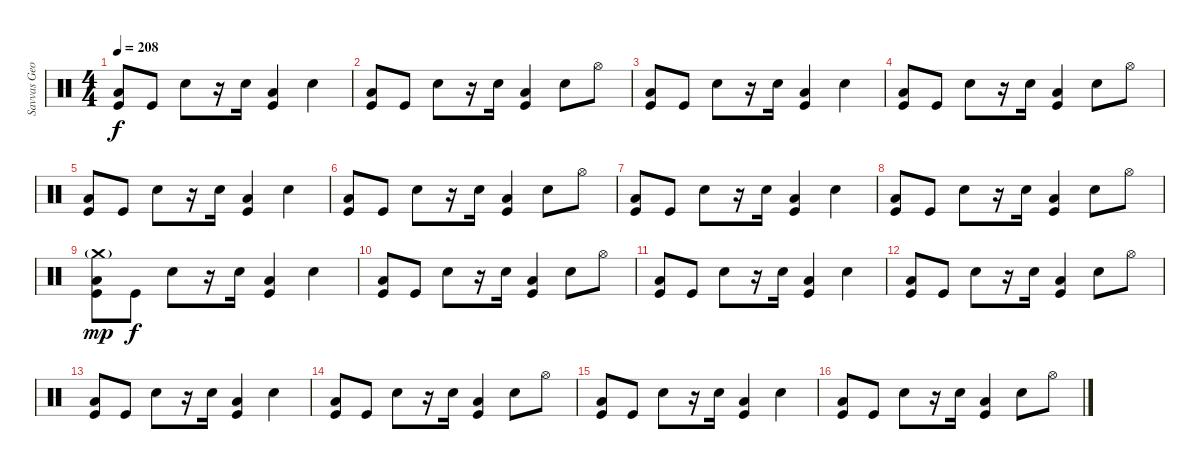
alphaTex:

\track ("Savvas Georgiadis" "Savvas Geo") {instrument percussion}
\staff {score}
\articulation defaults
\ts (4 4)
\tempo 208
\clef neutral
\ks c
("Low Tom (hit)" "Kick (hit)").8{dy f} "Kick (hit)".8 "Electric Snare (hit)".8 r.16 "Electric Snare (hit)".16 ("Low Tom (hit)" "Kick (hit)").4 "Electric Snare (hit)".4 |
("Low Tom (hit)" "Kick (hit)").8 "Kick (hit)".8 "Electric Snare (hit)".8 r.16 "Electric Snare (hit)".16 ("Low Tom (hit)" "Kick (hit)").4 "Electric Snare (hit)".8 "Hi-Hat (open)".8 |
("Low Tom (hit)" "Kick (hit)").8 "Kick (hit)".8 "Electric Snare (hit)".8 r.16 "Electric Snare (hit)".16 ("Low Tom (hit)" "Kick (hit)").4 "Electric Snare (hit)".4 |
("Low Tom (hit)" "Kick (hit)").8 "Kick (hit)".8 "Electric Snare (hit)".8 r.16 "Electric Snare (hit)".16 ("Low Tom (hit)" "Kick (hit)").4 "Electric Snare (hit)".8 "Hi-Hat (open)".8 |
("Low Tom (hit)" "Kick (hit)").8 "Kick (hit)".8 "Electric Snare (hit)".8 r.16 "Electric Snare (hit)".16 ("Low Tom (hit)" "Kick (hit)").4 "Electric Snare (hit)".4 |
("Low Tom (hit)" "Kick (hit)").8 "Kick (hit)".8 "Electric Snare (hit)".8 r.16 "Electric Snare (hit)".16 ("Low Tom (hit)" "Kick (hit)").4 "Electric Snare (hit)".8 "Hi-Hat (open)".8 |
("Low Tom (hit)" "Kick (hit)").8 "Kick (hit)".8 "Electric Snare (hit)".8 r.16 "Electric Snare (hit)".16 ("Low Tom (hit)" "Kick (hit)").4 "Electric Snare (hit)".4 |
("Low Tom (hit)" "Kick (hit)").8 "Kick (hit)".8 "Electric Snare (hit)".8 r.16 "Electric Snare (hit)".16 ("Low Tom (hit)" "Kick (hit)").4 "Electric Snare (hit)".8 "Hi-Hat (open)".8 |
("Crash medium (hit)"{g} "Low Tom (hit)" "Kick (hit)").8{dy mp} "Kick (hit)".8{dy f} "Electric Snare (hit)".8 r.16 "Electric Snare (hit)".16 ("Low Tom (hit)" "Kick (hit)").4 "Electric Snare (hit)".4 |
("Low Tom (hit)" "Kick (hit)").8 "Kick (hit)".8 "Electric Snare (hit)".8 r.16 "Electric Snare (hit)".16 ("Low Tom (hit)" "Kick (hit)").4 "Electric Snare (hit)".8 "Hi-Hat (open)".8 |
("Low Tom (hit)" "Kick (hit)").8 "Kick (hit)".8 "Electric Snare (hit)".8 r.16 "Electric Snare (hit)".16 ("Low Tom (hit)" "Kick (hit)").4 "Electric Snare (hit)".4 |
("Low Tom (hit)" "Kick (hit)").8 "Kick (hit)".8 "Electric Snare (hit)".8 r.16 "Electric Snare (hit)".16 ("Low Tom (hit)" "Kick (hit)").4 "Electric Snare (hit)".8 "Hi-Hat (open)".8 |
("Low Tom (hit)" "Kick (hit)").8 "Kick (hit)".8 "Electric Snare (hit)".8 r.16 "Electric Snare (hit)".16 ("Low Tom (hit)" "Kick (hit)").4 "Electric Snare (hit)".4 |
("Low Tom (hit)" "Kick (hit)").8 "Kick (hit)".8 "Electric Snare (hit)".8 r.16 "Electric Snare (hit)".16 ("Low Tom (hit)" "Kick (hit)").4 "Electric Snare (hit)".8 "Hi-Hat (open)".8 |
("Low Tom (hit)" "Kick (hit)").8 "Kick (hit)".8 "Electric Snare (hit)".8 r.16 "Electric Snare (hit)".16 ("Low Tom (hit)" "Kick (hit)").4 "Electric Snare (hit)".4 |
("Low Tom (hit)" "Kick (hit)").8 "Kick (hit)".8 "Electric Snare (hit)".8 r.16 "Electric Snare (hit)".16 ("Low Tom (hit)" "Kick (hit)").4 "Electric Snare (hit)".8 "Hi-Hat (open)".8
